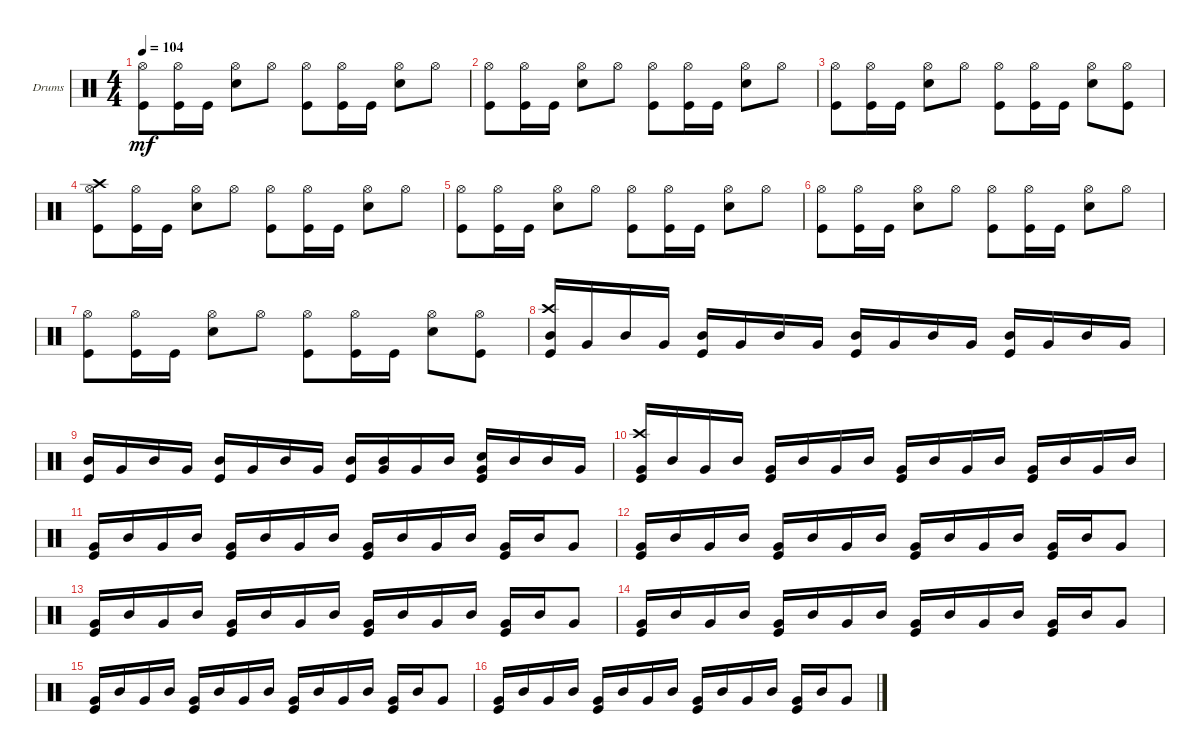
\defaultSystemsLayout 4
\bracketExtendMode groupsimilarinstruments
\firstSystemTrackNameOrientation horizontal
\otherSystemsTrackNameOrientation horizontal
\track ("Drum" "Drums") {instrument percussion}
\staff {score}
\articulation defaults
\ts (4 4)
\tempo 104
\clef neutral
\ks c
("Hi-Hat (open)" "Kick (hit)").8{dy mf} ("Hi-Hat (open)" "Kick (hit)").16 "Kick (hit)".16 ("Snare (hit) 2" "Hi-Hat (open)").8 "Hi-Hat (open)".8 ("Kick (hit)" "Hi-Hat (open)").8 ("Hi-Hat (open)" "Kick (hit)").16 "Kick (hit)".16 ("Snare (hit) 2" "Hi-Hat (open)").8 "Hi-Hat (open)".8 |
("Kick (hit)" "Hi-Hat (open)").8 ("Hi-Hat (open)" "Kick (hit)").16 "Kick (hit)".16 ("Hi-Hat (open)" "Snare (hit) 2").8 "Hi-Hat (open)".8 ("Hi-Hat (open)" "Kick (hit)").8 ("Kick (hit)" "Hi-Hat (open)").16 "Kick (hit)".16 ("Hi-Hat (open)" "Snare (hit) 2").8 "Hi-Hat (open)".8 |
("Hi-Hat (open)" "Kick (hit)").8 ("Hi-Hat (open)" "Kick (hit)").16 "Kick (hit)".16 ("Snare (hit) 2" "Hi-Hat (open)").8 "Hi-Hat (open)".8 ("Kick (hit)" "Hi-Hat (open)").8 ("Hi-Hat (open)" "Kick (hit)").16 "Kick (hit)".16 ("Hi-Hat (open)" "Snare (hit) 2").8 ("Hi-Hat (open)" "Kick (hit)").8 |
("Crash high (hit)" "Kick (hit)" "Hi-Hat (open)").8 ("Kick (hit)" "Hi-Hat (open)").16 "Kick (hit)".16 ("Snare (hit) 2" "Hi-Hat (open)").8 "Hi-Hat (open)".8 ("Kick (hit)" "Hi-Hat (open)").8 ("Hi-Hat (open)" "Kick (hit)").16 "Kick (hit)".16 ("Snare (hit) 2" "Hi-Hat (open)").8 "Hi-Hat (open)".8 |
("Kick (hit)" "Hi-Hat (open)").8 ("Hi-Hat (open)" "Kick (hit)").16 "Kick (hit)".16 ("Snare (hit) 2" "Hi-Hat (open)").8 "Hi-Hat (open)".8 ("Hi-Hat (open)" "Kick (hit)").8 ("Hi-Hat (open)" "Kick (hit)").16 "Kick (hit)".16 ("Hi-Hat (open)" "Snare (hit) 2").8 "Hi-Hat (open)".8 |
("Kick (hit)" "Hi-Hat (open)").8 ("Hi-Hat (open)" "Kick (hit)").16 "Kick (hit)".16 ("Snare (hit) 2" "Hi-Hat (open)").8 "Hi-Hat (open)".8 ("Hi-Hat (open)" "Kick (hit)").8 ("Hi-Hat (open)" "Kick (hit)").16 "Kick (hit)".16 ("Snare (hit) 2" "Hi-Hat (open)").8 "Hi-Hat (open)".8 |
("Kick (hit)" "Hi-Hat (open)").8 ("Hi-Hat (open)" "Kick (hit)").16 "Kick (hit)".16 ("Hi-Hat (open)" "Snare (hit) 2").8 "Hi-Hat (open)".8 ("Kick (hit)" "Hi-Hat (open)").8 ("Hi-Hat (open)" "Kick (hit)").16 "Kick (hit)".16 ("Hi-Hat (open)" "Snare (hit) 2").8 ("Kick (hit)" "Hi-Hat (open)").8 |
("Crash high (hit)" "Kick (hit)" "Mid Tom (hit)").16 "Very Low Tom (hit)".16 "Mid Tom (hit)".16 "Very Low Tom (hit)".16 ("Kick (hit)" "Mid Tom (hit)").16 "Very Low Tom (hit)".16 "Mid Tom (hit)".16 "Very Low Tom (hit)".16 ("Kick (hit)" "Mid Tom (hit)").16 "Very Low Tom (hit)".16 "Mid Tom (hit)".16 "Very Low Tom (hit)".16 ("Mid Tom (hit)" "Kick (hit)").16 "Very Low Tom (hit)".16 "Mid Tom (hit)".16 "Very Low Tom (hit)".16 |
("Mid Tom (hit)" "Kick (hit)").16 "Very Low Tom (hit)".16 "Mid Tom (hit)".16 "Very Low Tom (hit)".16 ("Kick (hit)" "Mid Tom (hit)").16 "Very Low Tom (hit)".16 "Mid Tom (hit)".16 "Very Low Tom (hit)".16 ("Mid Tom (hit)" "Kick (hit)").16 ("Very Low Tom (hit)" "Mid Tom (hit)").16 "Very Low Tom (hit)".16 "Mid Tom (hit)".16 ("Very Low Tom (hit)" "Kick (hit)" "Snare (hit) 2").16 "Mid Tom (hit)".16 "Mid Tom (hit)".16 "Very Low Tom (hit)".16 |
("Kick (hit)" "Very Low Tom (hit)" "Crash high (hit)").16 "Mid Tom (hit)".16 "Very Low Tom (hit)".16 "Mid Tom (hit)".16 ("Kick (hit)" "Very Low Tom (hit)").16 "Mid Tom (hit)".16 "Very Low Tom (hit)".16 "Mid Tom (hit)".16 ("Very Low Tom (hit)" "Kick (hit)").16 "Mid Tom (hit)".16 "Very Low Tom (hit)".16 "Mid Tom (hit)".16 ("Very Low Tom (hit)" "Kick (hit)").16 "Mid Tom (hit)".16 "Very Low Tom (hit)".16 "Mid Tom (hit)".16 |
("Kick (hit)" "Very Low Tom (hit)").16 "Mid Tom (hit)".16 "Very Low Tom (hit)".16 "Mid Tom (hit)".16 ("Kick (hit)" "Very Low Tom (hit)").16 "Mid Tom (hit)".16 "Very Low Tom (hit)".16 "Mid Tom (hit)".16 ("Very Low Tom (hit)" "Kick (hit)").16 "Mid Tom (hit)".16 "Very Low Tom (hit)".16 "Mid Tom (hit)".16 ("Very Low Tom (hit)" "Kick (hit)").16 "Mid Tom (hit)".16 "Very Low Tom (hit)".8 |
("Very Low Tom (hit)" "Kick (hit)").16 "Mid Tom (hit)".16 "Very Low Tom (hit)".16 "Mid Tom (hit)".16 ("Kick (hit)" "Very Low Tom (hit)").16 "Mid Tom (hit)".16 "Very Low Tom (hit)".16 "Mid Tom (hit)".16 ("Very Low Tom (hit)" "Kick (hit)").16 "Mid Tom (hit)".16 "Very Low Tom (hit)".16 "Mid Tom (hit)".16 ("Kick (hit)" "Very Low Tom (hit)").16 "Mid Tom (hit)".16 "Very Low Tom (hit)".8 |
("Very Low Tom (hit)" "Kick (hit)").16 "Mid Tom (hit)".16 "Very Low Tom (hit)".16 "Mid Tom (hit)".16 ("Kick (hit)" "Very Low Tom (hit)").16 "Mid Tom (hit)".16 "Very Low Tom (hit)".16 "Mid Tom (hit)".16 ("Kick (hit)" "Very Low Tom (hit)").16 "Mid Tom (hit)".16 "Very Low Tom (hit)".16 "Mid Tom (hit)".16 ("Kick (hit)" "Very Low Tom (hit)").16 "Mid Tom (hit)".16 "Very Low Tom (hit)".8 |
("Kick (hit)" "Very Low Tom (hit)").16 "Mid Tom (hit)".16 "Very Low Tom (hit)".16 "Mid Tom (hit)".16 ("Very Low Tom (hit)" "Kick (hit)").16 "Mid Tom (hit)".16 "Very Low Tom (hit)".16 "Mid Tom (hit)".16 ("Kick (hit)" "Very Low Tom (hit)").16 "Mid Tom (hit)".16 "Very Low Tom (hit)".16 "Mid Tom (hit)".16 ("Very Low Tom (hit)" "Kick (hit)").16 "Mid Tom (hit)".16 "Very Low Tom (hit)".8 |
("Very Low Tom (hit)" "Kick (hit)").16 "Mid Tom (hit)".16 "Very Low Tom (hit)".16 "Mid Tom (hit)".16 ("Kick (hit)" "Very Low Tom (hit)").16 "Mid Tom (hit)".16 "Very Low Tom (hit)".16 "Mid Tom (hit)".16 ("Kick (hit)" "Very Low Tom (hit)").16 "Mid Tom (hit)".16 "Very Low Tom (hit)".16 "Mid Tom (hit)".16 ("Kick (hit)" "Very Low Tom (hit)").16 "Mid Tom (hit)".16 "Very Low Tom (hit)".8 |
("Very Low Tom (hit)" "Kick (hit)").16 "Mid Tom (hit)".16 "Very Low Tom (hit)".16 "Mid Tom (hit)".16 ("Kick (hit)" "Very Low Tom (hit)").16 "Mid Tom (hit)".16 "Very Low Tom (hit)".16 "Mid Tom (hit)".16 ("Very Low Tom (hit)" "Kick (hit)").16 "Mid Tom (hit)".16 "Very Low Tom (hit)".16 "Mid Tom (hit)".16 ("Kick (hit)" "Very Low Tom (hit)").16 "Mid Tom (hit)".16 "Very Low Tom (hit)".8
